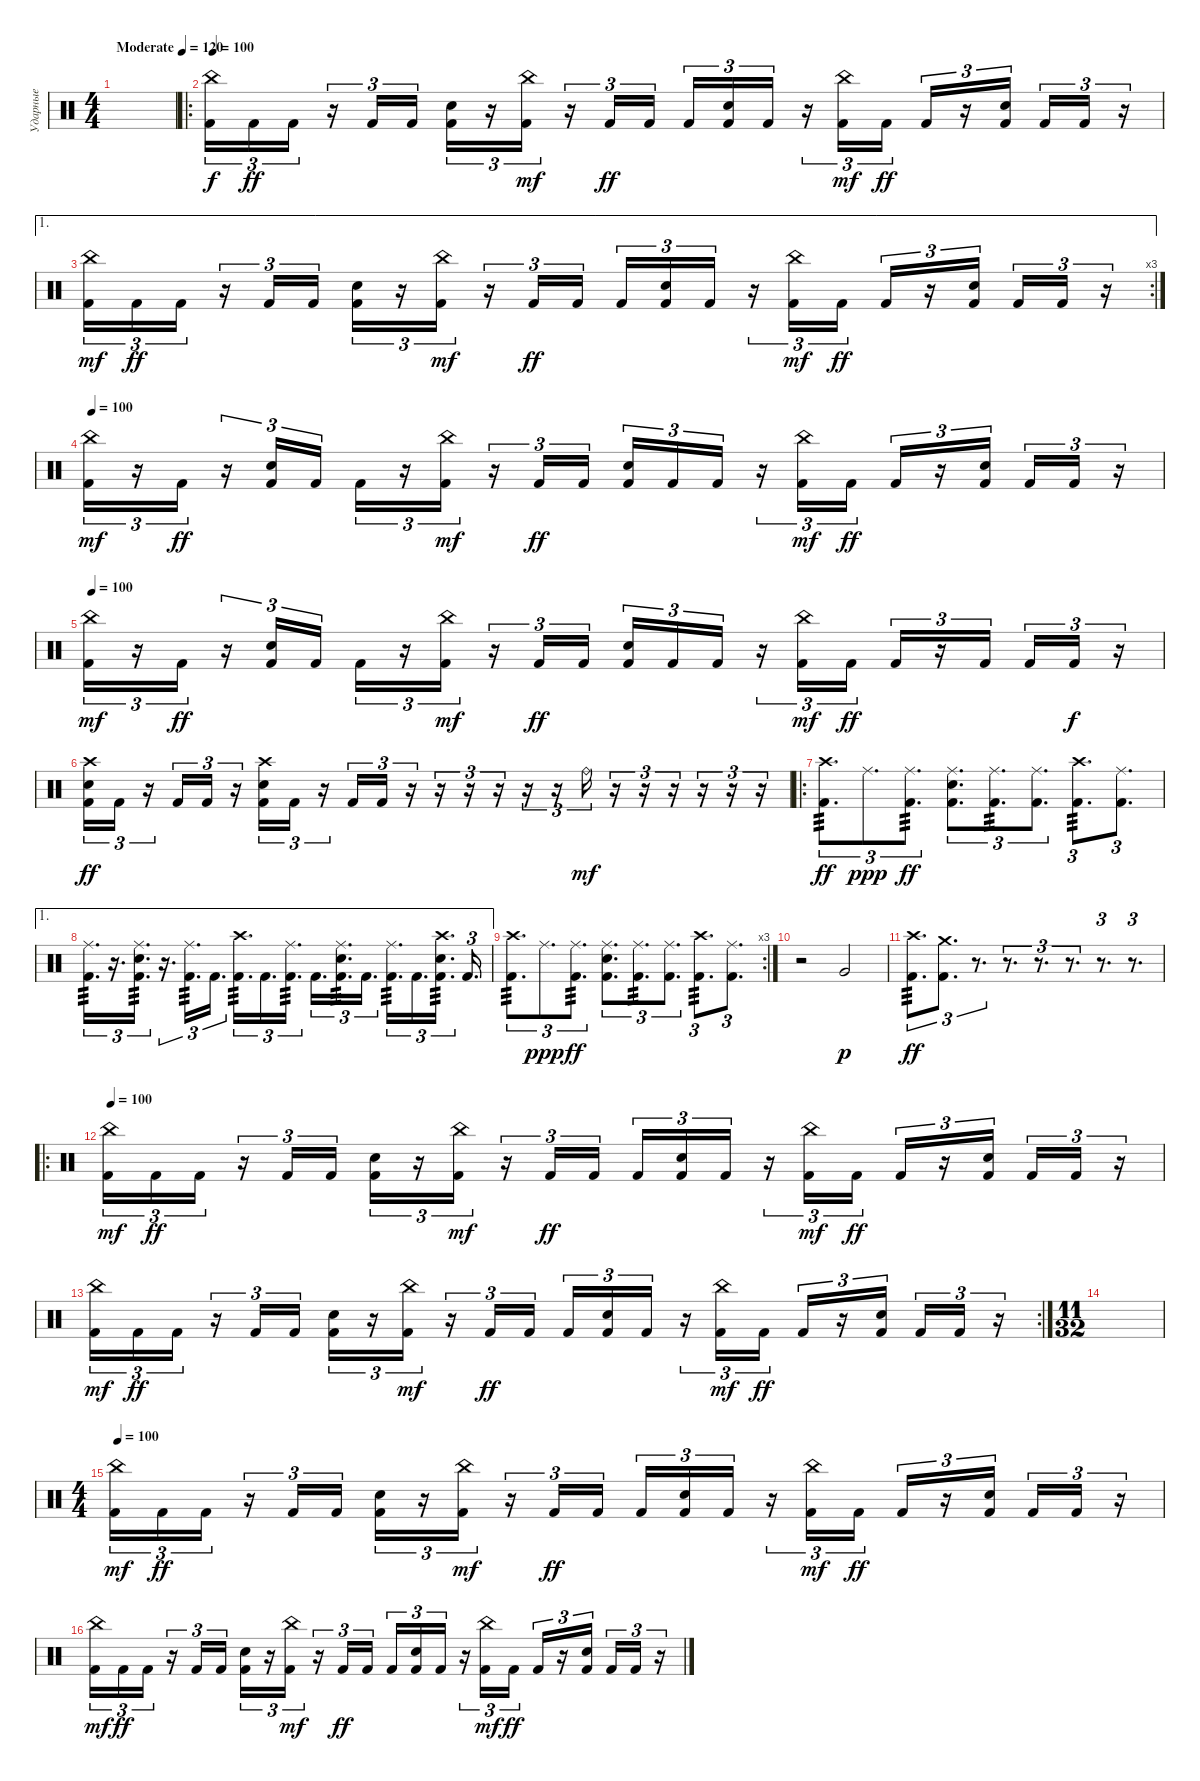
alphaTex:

\track ("Ударные" "Ударные") {instrument percussion}
\staff {score}
\articulation defaults
\ts (4 4)
\tempo (120 "Moderate")
\clef neutral
\ks c
|
\ro
\tempo 100
("Kick (hit) 2" "China (hit)").16{tu (3 2)} "Kick (hit) 2".16{tu (3 2) dy ff} "Kick (hit) 2".16{tu (3 2)} r.16{tu (3 2)} "Kick (hit) 2".16{tu (3 2)} "Kick (hit) 2".16{tu (3 2)} ("Kick (hit) 2" "Electric Snare (hit)").16{tu (3 2)} r.16{tu (3 2)} ("Kick (hit) 2" "China (hit)").16{tu (3 2) dy mf} r.16{tu (3 2)} "Kick (hit) 2".16{tu (3 2) dy ff} "Kick (hit) 2".16{tu (3 2)} "Kick (hit) 2".16{tu (3 2)} ("Kick (hit) 2" "Electric Snare (hit)").16{tu (3 2)} "Kick (hit) 2".16{tu (3 2)} r.16{tu (3 2)} ("Kick (hit) 2" "China (hit)").16{tu (3 2) dy mf} "Kick (hit) 2".16{tu (3 2) dy ff} "Kick (hit) 2".16{tu (3 2)} r.16{tu (3 2)} ("Kick (hit) 2" "Electric Snare (hit)").16{tu (3 2) beam splitsecondary} "Kick (hit) 2".16{tu (3 2)} "Kick (hit) 2".16{tu (3 2)} r.16{tu (3 2)} |
\ae 1
\rc 3
("Kick (hit) 2" "China (hit)").16{tu (3 2) dy mf} "Kick (hit) 2".16{tu (3 2) dy ff} "Kick (hit) 2".16{tu (3 2)} r.16{tu (3 2)} "Kick (hit) 2".16{tu (3 2)} "Kick (hit) 2".16{tu (3 2)} ("Kick (hit) 2" "Electric Snare (hit)").16{tu (3 2)} r.16{tu (3 2)} ("Kick (hit) 2" "China (hit)").16{tu (3 2) dy mf} r.16{tu (3 2)} "Kick (hit) 2".16{tu (3 2) dy ff} "Kick (hit) 2".16{tu (3 2)} "Kick (hit) 2".16{tu (3 2)} ("Kick (hit) 2" "Electric Snare (hit)").16{tu (3 2)} "Kick (hit) 2".16{tu (3 2)} r.16{tu (3 2)} ("Kick (hit) 2" "China (hit)").16{tu (3 2) dy mf} "Kick (hit) 2".16{tu (3 2) dy ff} "Kick (hit) 2".16{tu (3 2)} r.16{tu (3 2)} ("Kick (hit) 2" "Electric Snare (hit)").16{tu (3 2) beam splitsecondary} "Kick (hit) 2".16{tu (3 2)} "Kick (hit) 2".16{tu (3 2)} r.16{tu (3 2)} |
\tempo 100
("Kick (hit) 2" "China (hit)").16{tu (3 2) dy mf} r.16{tu (3 2)} "Kick (hit) 2".16{tu (3 2) dy ff} r.16{tu (3 2)} ("Kick (hit) 2" "Electric Snare (hit)").16{tu (3 2)} "Kick (hit) 2".16{tu (3 2)} "Kick (hit) 2".16{tu (3 2)} r.16{tu (3 2)} ("Kick (hit) 2" "China (hit)").16{tu (3 2) dy mf} r.16{tu (3 2)} "Kick (hit) 2".16{tu (3 2) dy ff} "Kick (hit) 2".16{tu (3 2)} ("Kick (hit) 2" "Electric Snare (hit)").16{tu (3 2)} "Kick (hit) 2".16{tu (3 2)} "Kick (hit) 2".16{tu (3 2)} r.16{tu (3 2)} ("Kick (hit) 2" "China (hit)").16{tu (3 2) dy mf} "Kick (hit) 2".16{tu (3 2) dy ff} "Kick (hit) 2".16{tu (3 2)} r.16{tu (3 2)} ("Kick (hit) 2" "Electric Snare (hit)").16{tu (3 2) beam splitsecondary} "Kick (hit) 2".16{tu (3 2)} "Kick (hit) 2".16{tu (3 2)} r.16{tu (3 2)} |
\tempo 100
("Kick (hit) 2" "China (hit)").16{tu (3 2) dy mf} r.16{tu (3 2)} "Kick (hit) 2".16{tu (3 2) dy ff} r.16{tu (3 2)} ("Kick (hit) 2" "Electric Snare (hit)").16{tu (3 2)} "Kick (hit) 2".16{tu (3 2)} "Kick (hit) 2".16{tu (3 2)} r.16{tu (3 2)} ("Kick (hit) 2" "China (hit)").16{tu (3 2) dy mf} r.16{tu (3 2)} "Kick (hit) 2".16{tu (3 2) dy ff} "Kick (hit) 2".16{tu (3 2)} ("Kick (hit) 2" "Electric Snare (hit)").16{tu (3 2)} "Kick (hit) 2".16{tu (3 2)} "Kick (hit) 2".16{tu (3 2)} r.16{tu (3 2)} ("Kick (hit) 2" "China (hit)").16{tu (3 2) dy mf} "Kick (hit) 2".16{tu (3 2) dy ff} "Kick (hit) 2".16{tu (3 2)} r.16{tu (3 2)} "Kick (hit) 2".16{tu (3 2) beam splitsecondary} "Kick (hit) 2".16{tu (3 2)} "Kick (hit) 2".16{tu (3 2) dy f} r.16{tu (3 2)} |
("Kick (hit) 2" "Electric Snare (hit)" "Crash high (hit)").16{tu (3 2) dy ff} "Kick (hit) 2".16{tu (3 2)} r.16{tu (3 2)} "Kick (hit) 2".16{tu (3 2)} "Kick (hit) 2".16{tu (3 2)} r.16{tu (3 2)} ("Kick (hit) 2" "Electric Snare (hit)" "Crash high (hit)").16{tu (3 2)} "Kick (hit) 2".16{tu (3 2)} r.16{tu (3 2)} "Kick (hit) 2".16{tu (3 2)} "Kick (hit) 2".16{tu (3 2)} r.16{tu (3 2)} r.16{tu (3 2)} r.16{tu (3 2)} r.16{tu (3 2)} r.16{tu (3 2)} r.16{tu (3 2)} "Ride (bell)".16{tu (3 2) dy mf} r.16{tu (3 2)} r.16{tu (3 2)} r.16{tu (3 2)} r.16{tu (3 2)} r.16{tu (3 2)} r.16{tu (3 2)} |
\ro
("Crash high (hit)" "Kick (hit) 2").8{d tu (3 2) tp 3 dy ff} "Ride (middle)".8{d tu (3 2) dy ppp} ("Ride (middle)" "Kick (hit) 2").8{d tu (3 2) tp 3 dy ff} ("Ride (middle)" "Electric Snare (hit)" "Kick (hit) 2").8{d tu (3 2)} ("Ride (middle)" "Kick (hit) 2").8{d tu (3 2) tp 3} ("Ride (middle)" "Kick (hit) 2").8{d tu (3 2)} ("Crash high (hit)" "Kick (hit) 2").8{d tu (3 2) tp 3} ("Ride (middle)" "Kick (hit) 2").8{d tu (3 2)} |
\ae 1
("Ride (middle)" "Kick (hit) 2").16{d tu (3 2) tp 3} r.16{d tu (3 2)} ("Ride (middle)" "Electric Snare (hit)" "Kick (hit) 2").16{d tu (3 2) tp 3} r.16{d tu (3 2)} ("Ride (middle)" "Kick (hit) 2").16{d tu (3 2) tp 3} "Kick (hit) 2".16{d tu (3 2)} ("Crash high (hit)" "Kick (hit) 2").16{d tu (3 2) tp 3} "Kick (hit) 2".16{d tu (3 2)} ("Ride (middle)" "Kick (hit) 2").16{d tu (3 2) tp 3} "Kick (hit) 2".16{d tu (3 2)} ("Ride (middle)" "Electric Snare (hit)" "Kick (hit) 2").16{d tu (3 2) tp 3} "Kick (hit) 2".16{d tu (3 2)} ("Ride (middle)" "Kick (hit) 2").16{d tu (3 2) tp 3} "Kick (hit) 2".16{d tu (3 2)} ("Crash high (hit)" "Electric Snare (hit)" "Kick (hit) 2").16{d tu (3 2) tp 3} "Kick (hit) 2".16{d tu (3 2)} |
\rc 3
("Crash high (hit)" "Kick (hit) 2").8{d tu (3 2) tp 3} "Ride (middle)".8{d tu (3 2) dy ppp} ("Ride (middle)" "Kick (hit) 2").8{d tu (3 2) tp 3 dy ff} ("Ride (middle)" "Electric Snare (hit)" "Kick (hit) 2").8{d tu (3 2)} ("Ride (middle)" "Kick (hit) 2").8{d tu (3 2) tp 3} ("Ride (middle)" "Kick (hit) 2").8{d tu (3 2)} ("Crash high (hit)" "Kick (hit) 2").8{d tu (3 2) tp 3} ("Ride (middle)" "Kick (hit) 2").8{d tu (3 2)} |
r.2 "Very Low Tom (hit)".2{dy p} |
("Crash high (hit)" "Kick (hit) 2").8{d tu (3 2) tp 3 dy ff} ("Crash medium (hit)" "Kick (hit) 2").8{d tu (3 2)} r.8{d tu (3 2)} r.8{d tu (3 2)} r.8{d tu (3 2)} r.8{d tu (3 2)} r.8{d tu (3 2)} r.8{d tu (3 2)} |
\ro
\tempo 100
("Kick (hit) 2" "China (hit)").16{tu (3 2) dy mf} "Kick (hit) 2".16{tu (3 2) dy ff} "Kick (hit) 2".16{tu (3 2)} r.16{tu (3 2)} "Kick (hit) 2".16{tu (3 2)} "Kick (hit) 2".16{tu (3 2)} ("Kick (hit) 2" "Electric Snare (hit)").16{tu (3 2)} r.16{tu (3 2)} ("Kick (hit) 2" "China (hit)").16{tu (3 2) dy mf} r.16{tu (3 2)} "Kick (hit) 2".16{tu (3 2) dy ff} "Kick (hit) 2".16{tu (3 2)} "Kick (hit) 2".16{tu (3 2)} ("Kick (hit) 2" "Electric Snare (hit)").16{tu (3 2)} "Kick (hit) 2".16{tu (3 2)} r.16{tu (3 2)} ("Kick (hit) 2" "China (hit)").16{tu (3 2) dy mf} "Kick (hit) 2".16{tu (3 2) dy ff} "Kick (hit) 2".16{tu (3 2)} r.16{tu (3 2)} ("Kick (hit) 2" "Electric Snare (hit)").16{tu (3 2) beam splitsecondary} "Kick (hit) 2".16{tu (3 2)} "Kick (hit) 2".16{tu (3 2)} r.16{tu (3 2)} |
\rc 2
("Kick (hit) 2" "China (hit)").16{tu (3 2) dy mf} "Kick (hit) 2".16{tu (3 2) dy ff} "Kick (hit) 2".16{tu (3 2)} r.16{tu (3 2)} "Kick (hit) 2".16{tu (3 2)} "Kick (hit) 2".16{tu (3 2)} ("Kick (hit) 2" "Electric Snare (hit)").16{tu (3 2)} r.16{tu (3 2)} ("Kick (hit) 2" "China (hit)").16{tu (3 2) dy mf} r.16{tu (3 2)} "Kick (hit) 2".16{tu (3 2) dy ff} "Kick (hit) 2".16{tu (3 2)} "Kick (hit) 2".16{tu (3 2)} ("Kick (hit) 2" "Electric Snare (hit)").16{tu (3 2)} "Kick (hit) 2".16{tu (3 2)} r.16{tu (3 2)} ("Kick (hit) 2" "China (hit)").16{tu (3 2) dy mf} "Kick (hit) 2".16{tu (3 2) dy ff} "Kick (hit) 2".16{tu (3 2)} r.16{tu (3 2)} ("Kick (hit) 2" "Electric Snare (hit)").16{tu (3 2) beam splitsecondary} "Kick (hit) 2".16{tu (3 2)} "Kick (hit) 2".16{tu (3 2)} r.16{tu (3 2)} |
\ts (11 32)
|
\ts (4 4)
\tempo 100
("Kick (hit) 2" "China (hit)").16{tu (3 2) dy mf} "Kick (hit) 2".16{tu (3 2) dy ff} "Kick (hit) 2".16{tu (3 2)} r.16{tu (3 2)} "Kick (hit) 2".16{tu (3 2)} "Kick (hit) 2".16{tu (3 2)} ("Kick (hit) 2" "Electric Snare (hit)").16{tu (3 2)} r.16{tu (3 2)} ("Kick (hit) 2" "China (hit)").16{tu (3 2) dy mf} r.16{tu (3 2)} "Kick (hit) 2".16{tu (3 2) dy ff} "Kick (hit) 2".16{tu (3 2)} "Kick (hit) 2".16{tu (3 2)} ("Kick (hit) 2" "Electric Snare (hit)").16{tu (3 2)} "Kick (hit) 2".16{tu (3 2)} r.16{tu (3 2)} ("Kick (hit) 2" "China (hit)").16{tu (3 2) dy mf} "Kick (hit) 2".16{tu (3 2) dy ff} "Kick (hit) 2".16{tu (3 2)} r.16{tu (3 2)} ("Kick (hit) 2" "Electric Snare (hit)").16{tu (3 2) beam splitsecondary} "Kick (hit) 2".16{tu (3 2)} "Kick (hit) 2".16{tu (3 2)} r.16{tu (3 2)} |
("Kick (hit) 2" "China (hit)").16{tu (3 2) dy mf} "Kick (hit) 2".16{tu (3 2) dy ff} "Kick (hit) 2".16{tu (3 2)} r.16{tu (3 2)} "Kick (hit) 2".16{tu (3 2)} "Kick (hit) 2".16{tu (3 2)} ("Kick (hit) 2" "Electric Snare (hit)").16{tu (3 2)} r.16{tu (3 2)} ("Kick (hit) 2" "China (hit)").16{tu (3 2) dy mf} r.16{tu (3 2)} "Kick (hit) 2".16{tu (3 2) dy ff} "Kick (hit) 2".16{tu (3 2)} "Kick (hit) 2".16{tu (3 2)} ("Kick (hit) 2" "Electric Snare (hit)").16{tu (3 2)} "Kick (hit) 2".16{tu (3 2)} r.16{tu (3 2)} ("Kick (hit) 2" "China (hit)").16{tu (3 2) dy mf} "Kick (hit) 2".16{tu (3 2) dy ff} "Kick (hit) 2".16{tu (3 2)} r.16{tu (3 2)} ("Kick (hit) 2" "Electric Snare (hit)").16{tu (3 2) beam splitsecondary} "Kick (hit) 2".16{tu (3 2)} "Kick (hit) 2".16{tu (3 2)} r.16{tu (3 2)}
